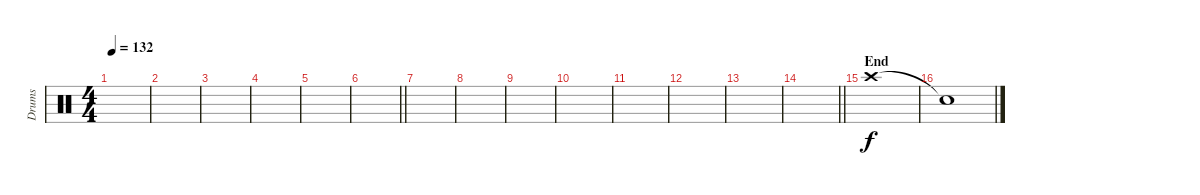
\track ("Drums" "Drums") {instrument percussion}
\staff {score}
\articulation defaults
\ts (4 4)
\tempo 132
\clef neutral
\ks c
|
|
|
|
|
\barLineRight lightlight
|
|
|
|
|
|
|
|
\barLineRight lightlight
|
\section ("" "End")
"Crash high (hit)".1 |
"Snare (hit)"{t}.1
